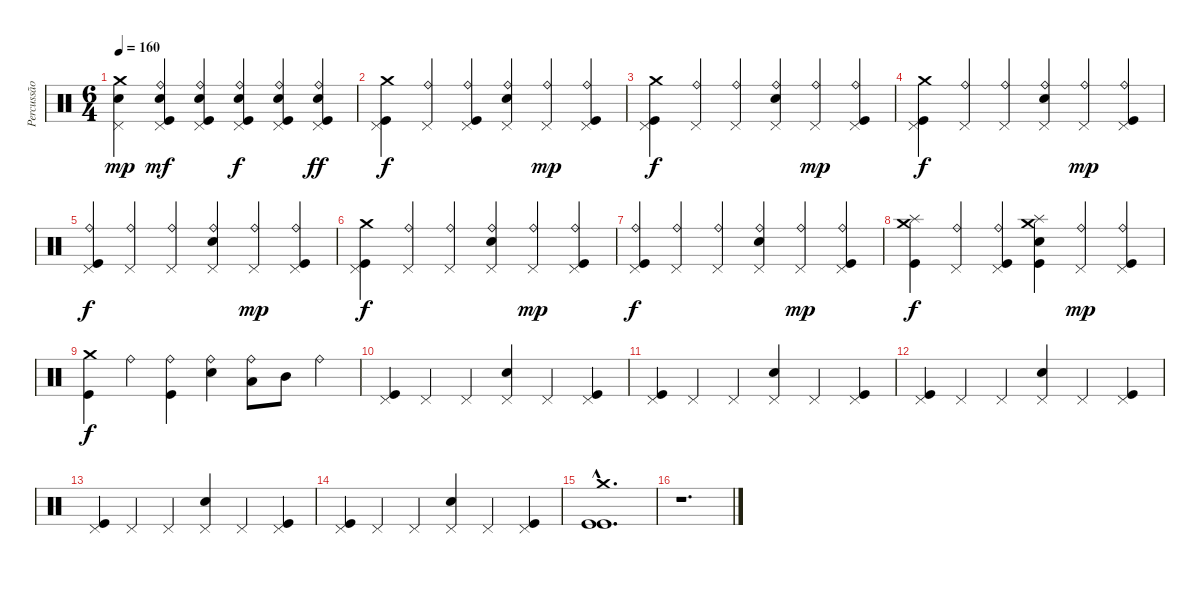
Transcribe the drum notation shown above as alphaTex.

\track ("Percussão" "Percussão") {instrument percussion}
\staff {score}
\articulation defaults
\ts (6 4)
\tempo 160
\clef neutral
\ks c
("Crash medium (hit)" "Pedal Hi-Hat (hit)" "Snare (hit) 2").4{dy mp} ("Ride (bell)" "Pedal Hi-Hat (hit)" "Snare (hit) 2" "Kick (hit)").4{dy mf} ("Ride (bell)" "Pedal Hi-Hat (hit)" "Snare (hit) 2" "Kick (hit)").4 ("Ride (bell)" "Pedal Hi-Hat (hit)" "Snare (hit) 2" "Kick (hit)").4{dy f} ("Ride (bell)" "Pedal Hi-Hat (hit)" "Snare (hit) 2" "Kick (hit)").4 ("Ride (bell)" "Pedal Hi-Hat (hit)" "Snare (hit) 2" "Kick (hit)").4{dy ff} |
("Crash medium (hit)" "Pedal Hi-Hat (hit)" "Kick (hit)").4{dy f} ("Ride (bell)" "Pedal Hi-Hat (hit)").4 ("Ride (bell)" "Pedal Hi-Hat (hit)" "Kick (hit)").4 ("Ride (bell)" "Pedal Hi-Hat (hit)" "Snare (hit) 2").4 ("Ride (bell)" "Pedal Hi-Hat (hit)").4{dy mp} ("Ride (bell)" "Pedal Hi-Hat (hit)" "Kick (hit)").4 |
("Crash medium (hit)" "Pedal Hi-Hat (hit)" "Kick (hit)").4{dy f} ("Ride (bell)" "Pedal Hi-Hat (hit)").4 ("Ride (bell)" "Pedal Hi-Hat (hit)").4 ("Ride (bell)" "Pedal Hi-Hat (hit)" "Snare (hit) 2").4 ("Ride (bell)" "Pedal Hi-Hat (hit)").4{dy mp} ("Ride (bell)" "Pedal Hi-Hat (hit)" "Kick (hit)").4 |
("Crash medium (hit)" "Pedal Hi-Hat (hit)" "Kick (hit)").4{dy f} ("Ride (bell)" "Pedal Hi-Hat (hit)").4 ("Ride (bell)" "Pedal Hi-Hat (hit)").4 ("Ride (bell)" "Pedal Hi-Hat (hit)" "Snare (hit) 2").4 ("Ride (bell)" "Pedal Hi-Hat (hit)").4{dy mp} ("Ride (bell)" "Pedal Hi-Hat (hit)" "Kick (hit)").4 |
("Ride (bell)" "Pedal Hi-Hat (hit)" "Kick (hit)").4{dy f} ("Ride (bell)" "Pedal Hi-Hat (hit)").4 ("Ride (bell)" "Pedal Hi-Hat (hit)").4 ("Ride (bell)" "Pedal Hi-Hat (hit)" "Snare (hit) 2").4 ("Ride (bell)" "Pedal Hi-Hat (hit)").4{dy mp} ("Ride (bell)" "Pedal Hi-Hat (hit)" "Kick (hit)").4 |
("Crash medium (hit)" "Pedal Hi-Hat (hit)" "Kick (hit)").4{dy f} ("Ride (bell)" "Pedal Hi-Hat (hit)").4 ("Ride (bell)" "Pedal Hi-Hat (hit)").4 ("Ride (bell)" "Pedal Hi-Hat (hit)" "Snare (hit) 2").4 ("Ride (bell)" "Pedal Hi-Hat (hit)").4{dy mp} ("Ride (bell)" "Pedal Hi-Hat (hit)" "Kick (hit)").4 |
("Ride (bell)" "Pedal Hi-Hat (hit)" "Kick (hit)").4{dy f} ("Ride (bell)" "Pedal Hi-Hat (hit)").4 ("Ride (bell)" "Pedal Hi-Hat (hit)").4 ("Ride (bell)" "Pedal Hi-Hat (hit)" "Snare (hit) 2").4 ("Ride (bell)" "Pedal Hi-Hat (hit)").4{dy mp} ("Ride (bell)" "Pedal Hi-Hat (hit)" "Kick (hit)").4 |
("Crash medium (hit)" "Splash (hit)" "Kick (hit)").4{dy f} ("Ride (bell)" "Pedal Hi-Hat (hit)").4 ("Ride (bell)" "Pedal Hi-Hat (hit)" "Kick (hit)").4 ("Crash medium (hit)" "Splash (hit)" "Snare (hit) 2" "Kick (hit)").4 ("Ride (bell)" "Pedal Hi-Hat (hit)").4{dy mp} ("Ride (bell)" "Pedal Hi-Hat (hit)" "Kick (hit)").4 |
("Crash medium (hit)" "Kick (hit)").4{dy f} "Ride (bell)".4 ("Ride (bell)" "Kick (hit)").4 ("Ride (bell)" "Snare (hit) 2").4 ("Ride (bell)" "Low Tom (hit)").8 "Mid Tom (hit)".8 "Ride (bell)".4 |
("Pedal Hi-Hat (hit)" "Kick (hit)").4 "Pedal Hi-Hat (hit)".4 "Pedal Hi-Hat (hit)".4 ("Pedal Hi-Hat (hit)" "Snare (hit) 2").4 "Pedal Hi-Hat (hit)".4 ("Pedal Hi-Hat (hit)" "Kick (hit)").4 |
("Pedal Hi-Hat (hit)" "Kick (hit)").4 "Pedal Hi-Hat (hit)".4 "Pedal Hi-Hat (hit)".4 ("Pedal Hi-Hat (hit)" "Snare (hit) 2").4 "Pedal Hi-Hat (hit)".4 ("Pedal Hi-Hat (hit)" "Kick (hit)").4 |
("Pedal Hi-Hat (hit)" "Kick (hit)").4 "Pedal Hi-Hat (hit)".4 "Pedal Hi-Hat (hit)".4 ("Pedal Hi-Hat (hit)" "Snare (hit) 2").4 "Pedal Hi-Hat (hit)".4 ("Pedal Hi-Hat (hit)" "Kick (hit)").4 |
("Pedal Hi-Hat (hit)" "Kick (hit)").4 "Pedal Hi-Hat (hit)".4 "Pedal Hi-Hat (hit)".4 ("Pedal Hi-Hat (hit)" "Snare (hit) 2").4 "Pedal Hi-Hat (hit)".4 ("Pedal Hi-Hat (hit)" "Kick (hit)").4 |
("Pedal Hi-Hat (hit)" "Kick (hit)").4 "Pedal Hi-Hat (hit)".4 "Pedal Hi-Hat (hit)".4 ("Pedal Hi-Hat (hit)" "Snare (hit) 2").4 "Pedal Hi-Hat (hit)".4 ("Pedal Hi-Hat (hit)" "Kick (hit)").4 |
("Crash medium (hit)"{hac} "Kick (hit)"{hac} "Kick (hit)"{hac}).1{d} |
r.1{d}
